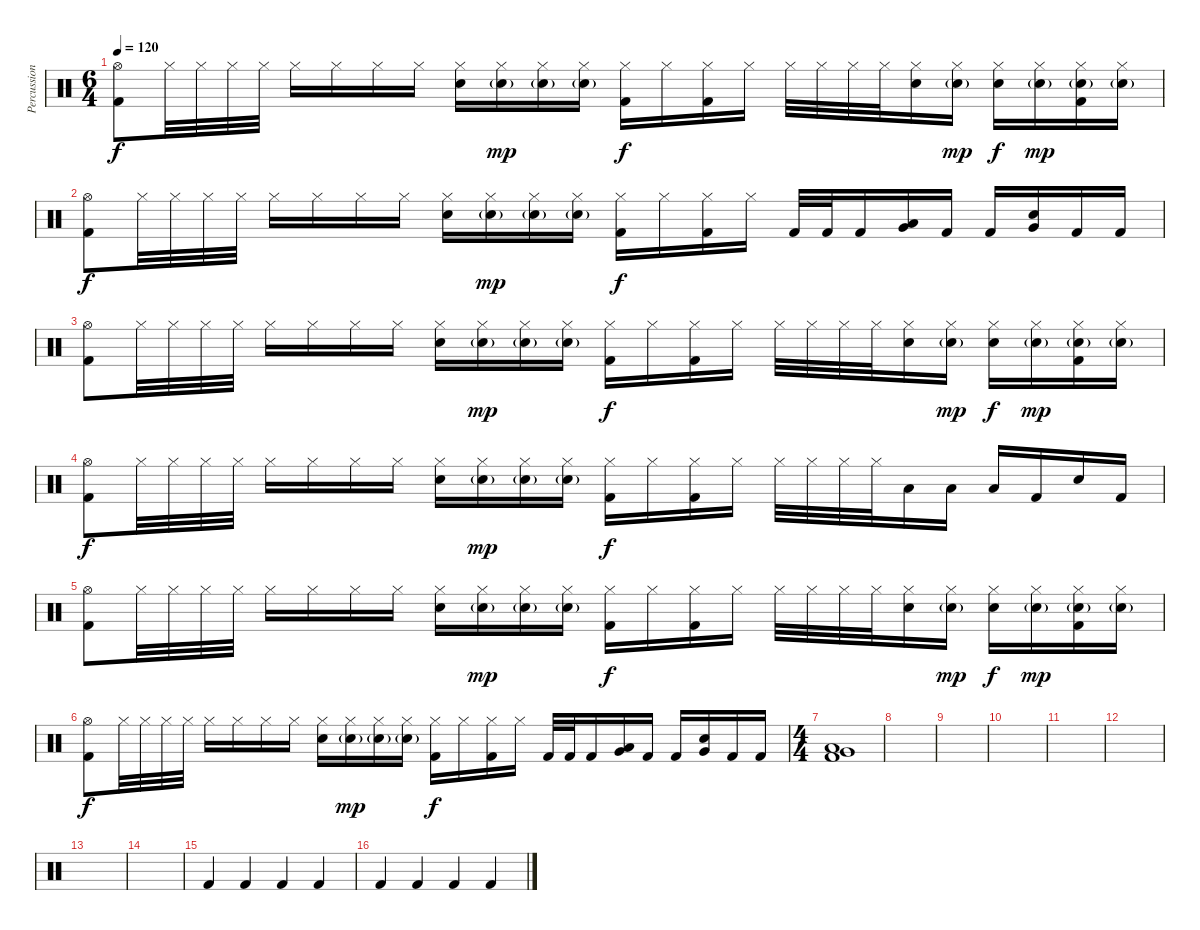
\track ("Percussion" "Percussion") {instrument percussion}
\staff {score}
\articulation defaults
\ts (6 4)
\tempo 120
\clef neutral
\ks c
("Hi-Hat (open)" "Kick (hit) 2").8{dy f} "Hi-Hat (closed)".32 "Hi-Hat (closed)".32 "Hi-Hat (closed)".32 "Hi-Hat (closed)".32 "Hi-Hat (closed)".16 "Hi-Hat (closed)".16 "Hi-Hat (closed)".16 "Hi-Hat (closed)".16 ("Hi-Hat (closed)" "Electric Snare (hit)").16 ("Hi-Hat (closed)" "Electric Snare (hit)"{g}).16{dy mp} ("Hi-Hat (closed)" "Electric Snare (hit)"{g}).16 ("Hi-Hat (closed)" "Electric Snare (hit)"{g}).16 ("Hi-Hat (closed)" "Kick (hit) 2").16{dy f} "Hi-Hat (closed)".16 ("Hi-Hat (closed)" "Kick (hit) 2").16 "Hi-Hat (closed)".16 "Hi-Hat (closed)".32 "Hi-Hat (closed)".32 "Hi-Hat (closed)".32 "Hi-Hat (closed)".32 ("Hi-Hat (closed)" "Electric Snare (hit)").16 ("Hi-Hat (closed)" "Electric Snare (hit)"{g}).16{dy mp} ("Hi-Hat (closed)" "Electric Snare (hit)").16{dy f} ("Hi-Hat (closed)" "Electric Snare (hit)"{g}).16{dy mp} ("Hi-Hat (closed)" "Electric Snare (hit)"{g} "Kick (hit) 2").16 ("Hi-Hat (closed)" "Electric Snare (hit)"{g}).16 |
("Hi-Hat (open)" "Kick (hit) 2").8{dy f} "Hi-Hat (closed)".32 "Hi-Hat (closed)".32 "Hi-Hat (closed)".32 "Hi-Hat (closed)".32 "Hi-Hat (closed)".16 "Hi-Hat (closed)".16 "Hi-Hat (closed)".16 "Hi-Hat (closed)".16 ("Hi-Hat (closed)" "Electric Snare (hit)").16 ("Hi-Hat (closed)" "Electric Snare (hit)"{g}).16{dy mp} ("Hi-Hat (closed)" "Electric Snare (hit)"{g}).16 ("Hi-Hat (closed)" "Electric Snare (hit)"{g}).16 ("Hi-Hat (closed)" "Kick (hit) 2").16{dy f} "Hi-Hat (closed)".16 ("Hi-Hat (closed)" "Kick (hit) 2").16 "Hi-Hat (closed)".16 "Kick (hit) 2".32 "Kick (hit) 2".32 "Kick (hit) 2".16 ("Very Low Tom (hit)" "Low Floor Tom (hit)").16 "Kick (hit) 2".16 "Kick (hit) 2".16 ("Electric Snare (hit)" "Very Low Tom (hit)").16 "Kick (hit) 2".16 "Kick (hit) 2".16 |
("Hi-Hat (open)" "Kick (hit) 2").8 "Hi-Hat (closed)".32 "Hi-Hat (closed)".32 "Hi-Hat (closed)".32 "Hi-Hat (closed)".32 "Hi-Hat (closed)".16 "Hi-Hat (closed)".16 "Hi-Hat (closed)".16 "Hi-Hat (closed)".16 ("Hi-Hat (closed)" "Electric Snare (hit)").16 ("Hi-Hat (closed)" "Electric Snare (hit)"{g}).16{dy mp} ("Hi-Hat (closed)" "Electric Snare (hit)"{g}).16 ("Hi-Hat (closed)" "Electric Snare (hit)"{g}).16 ("Hi-Hat (closed)" "Kick (hit) 2").16{dy f} "Hi-Hat (closed)".16 ("Hi-Hat (closed)" "Kick (hit) 2").16 "Hi-Hat (closed)".16 "Hi-Hat (closed)".32 "Hi-Hat (closed)".32 "Hi-Hat (closed)".32 "Hi-Hat (closed)".32 ("Hi-Hat (closed)" "Electric Snare (hit)").16 ("Hi-Hat (closed)" "Electric Snare (hit)"{g}).16{dy mp} ("Hi-Hat (closed)" "Electric Snare (hit)").16{dy f} ("Hi-Hat (closed)" "Electric Snare (hit)"{g}).16{dy mp} ("Hi-Hat (closed)" "Electric Snare (hit)"{g} "Kick (hit) 2").16 ("Hi-Hat (closed)" "Electric Snare (hit)"{g}).16 |
("Hi-Hat (open)" "Kick (hit) 2").8{dy f} "Hi-Hat (closed)".32 "Hi-Hat (closed)".32 "Hi-Hat (closed)".32 "Hi-Hat (closed)".32 "Hi-Hat (closed)".16 "Hi-Hat (closed)".16 "Hi-Hat (closed)".16 "Hi-Hat (closed)".16 ("Hi-Hat (closed)" "Electric Snare (hit)").16 ("Hi-Hat (closed)" "Electric Snare (hit)"{g}).16{dy mp} ("Hi-Hat (closed)" "Electric Snare (hit)"{g}).16 ("Hi-Hat (closed)" "Electric Snare (hit)"{g}).16 ("Hi-Hat (closed)" "Kick (hit) 2").16{dy f} "Hi-Hat (closed)".16 ("Hi-Hat (closed)" "Kick (hit) 2").16 "Hi-Hat (closed)".16 "Hi-Hat (closed)".32 "Hi-Hat (closed)".32 "Hi-Hat (closed)".32 "Hi-Hat (closed)".32 "Low Tom (hit)".16 "Low Tom (hit)".16 "Low Tom (hit)".16 "Kick (hit) 2".16 "Electric Snare (hit)".16 "Kick (hit) 2".16 |
("Hi-Hat (open)" "Kick (hit) 2").8 "Hi-Hat (closed)".32 "Hi-Hat (closed)".32 "Hi-Hat (closed)".32 "Hi-Hat (closed)".32 "Hi-Hat (closed)".16 "Hi-Hat (closed)".16 "Hi-Hat (closed)".16 "Hi-Hat (closed)".16 ("Hi-Hat (closed)" "Electric Snare (hit)").16 ("Hi-Hat (closed)" "Electric Snare (hit)"{g}).16{dy mp} ("Hi-Hat (closed)" "Electric Snare (hit)"{g}).16 ("Hi-Hat (closed)" "Electric Snare (hit)"{g}).16 ("Hi-Hat (closed)" "Kick (hit) 2").16{dy f} "Hi-Hat (closed)".16 ("Hi-Hat (closed)" "Kick (hit) 2").16 "Hi-Hat (closed)".16 "Hi-Hat (closed)".32 "Hi-Hat (closed)".32 "Hi-Hat (closed)".32 "Hi-Hat (closed)".32 ("Hi-Hat (closed)" "Electric Snare (hit)").16 ("Hi-Hat (closed)" "Electric Snare (hit)"{g}).16{dy mp} ("Hi-Hat (closed)" "Electric Snare (hit)").16{dy f} ("Hi-Hat (closed)" "Electric Snare (hit)"{g}).16{dy mp} ("Hi-Hat (closed)" "Electric Snare (hit)"{g} "Kick (hit) 2").16 ("Hi-Hat (closed)" "Electric Snare (hit)"{g}).16 |
("Hi-Hat (open)" "Kick (hit) 2").8{dy f} "Hi-Hat (closed)".32 "Hi-Hat (closed)".32 "Hi-Hat (closed)".32 "Hi-Hat (closed)".32 "Hi-Hat (closed)".16 "Hi-Hat (closed)".16 "Hi-Hat (closed)".16 "Hi-Hat (closed)".16 ("Hi-Hat (closed)" "Electric Snare (hit)").16 ("Hi-Hat (closed)" "Electric Snare (hit)"{g}).16{dy mp} ("Hi-Hat (closed)" "Electric Snare (hit)"{g}).16 ("Hi-Hat (closed)" "Electric Snare (hit)"{g}).16 ("Hi-Hat (closed)" "Kick (hit) 2").16{dy f} "Hi-Hat (closed)".16 ("Hi-Hat (closed)" "Kick (hit) 2").16 "Hi-Hat (closed)".16 "Kick (hit) 2".32 "Kick (hit) 2".32 "Kick (hit) 2".16 ("Very Low Tom (hit)" "Low Floor Tom (hit)").16 "Kick (hit) 2".16 "Kick (hit) 2".16 ("Electric Snare (hit)" "Very Low Tom (hit)").16 "Kick (hit) 2".16 "Kick (hit) 2".16 |
\ts (4 4)
("Very Low Tom (hit)" "Low Floor Tom (hit)" "Kick (hit) 2").1 |
|
|
|
|
|
|
|
"Kick (hit) 2".4 "Kick (hit) 2".4 "Kick (hit) 2".4 "Kick (hit) 2".4 |
"Kick (hit) 2".4 "Kick (hit) 2".4 "Kick (hit) 2".4 "Kick (hit) 2".4
